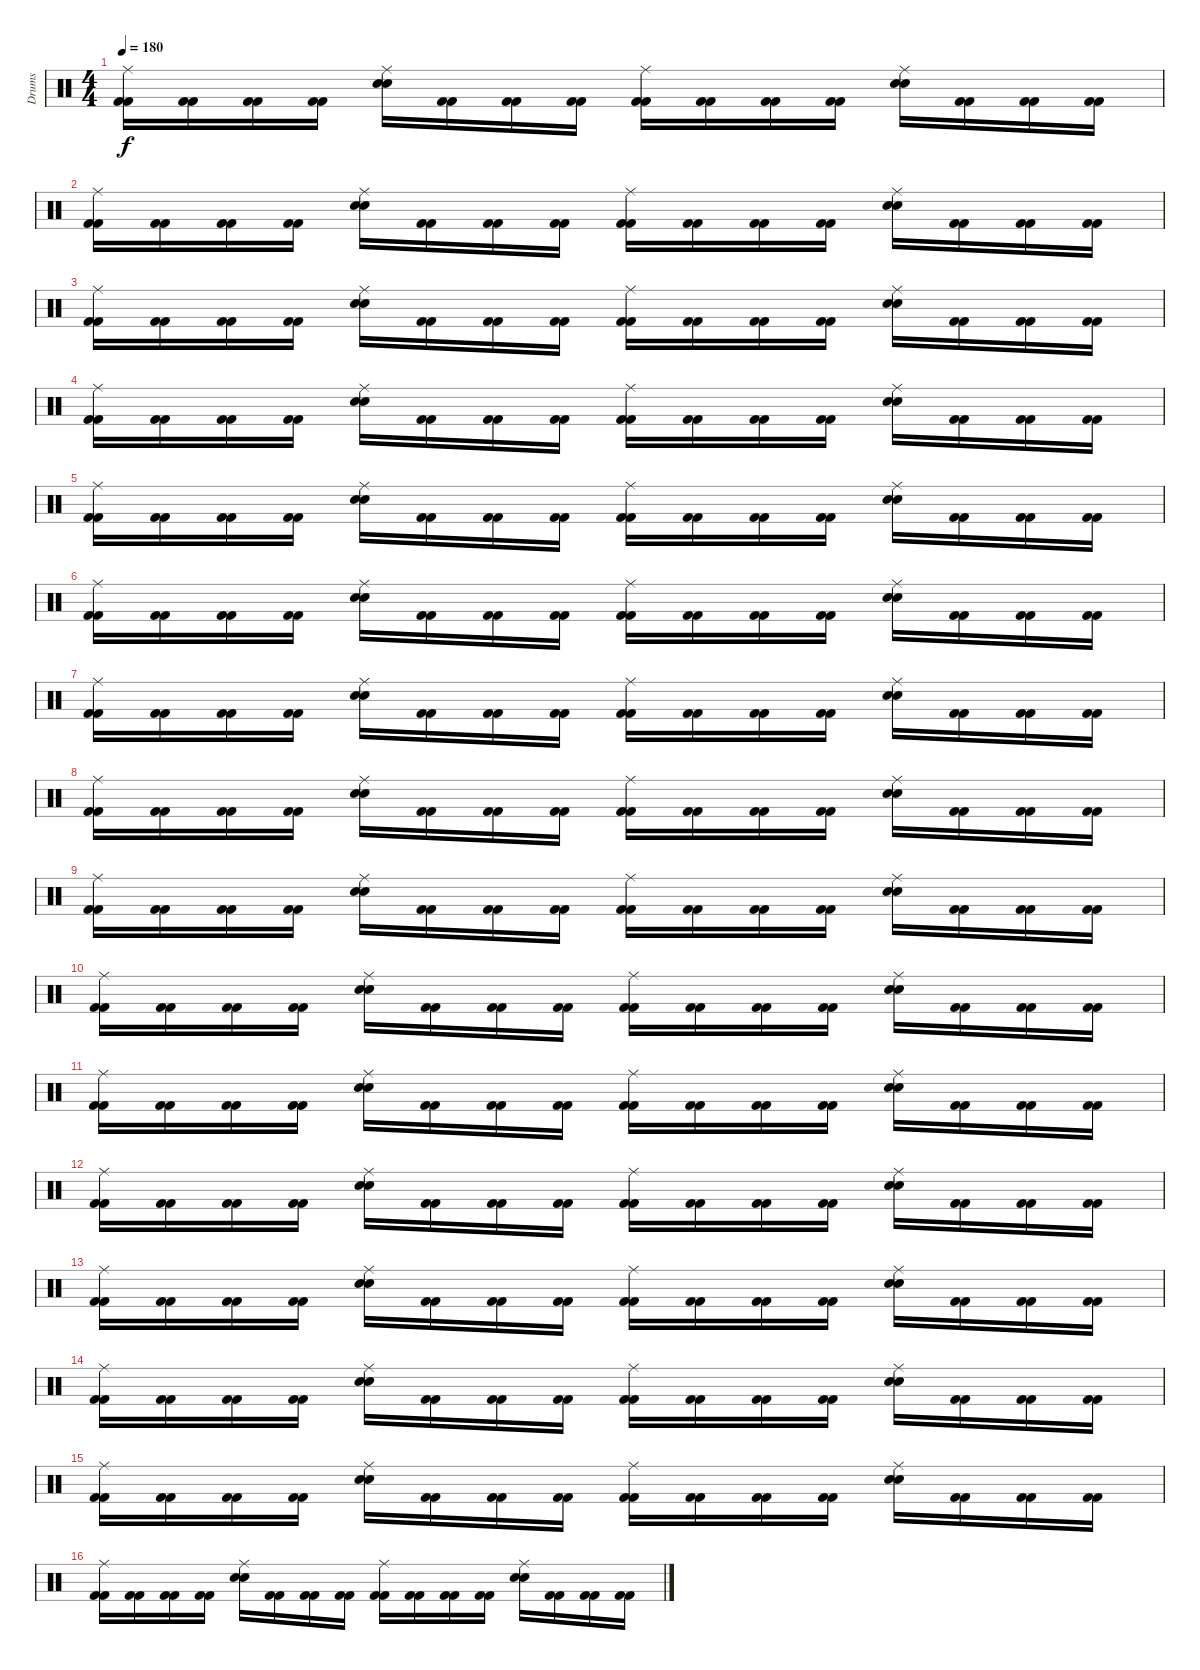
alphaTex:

\track ("Drums" "Drums") {instrument percussion}
\staff {score}
\articulation defaults
\ts (4 4)
\tempo 180
\clef neutral
\ks c
("Ride (middle)" "Kick (hit) 2" "Kick (hit) 2").16{dy f} ("Kick (hit) 2" "Kick (hit) 2").16 ("Kick (hit) 2" "Kick (hit) 2").16 ("Kick (hit) 2" "Kick (hit) 2").16 ("Ride (middle)" "Snare (hit) 2" "Snare (hit) 2").16 ("Kick (hit) 2" "Kick (hit) 2").16 ("Kick (hit) 2" "Kick (hit) 2").16 ("Kick (hit) 2" "Kick (hit) 2").16 ("Ride (middle)" "Kick (hit) 2" "Kick (hit) 2").16 ("Kick (hit) 2" "Kick (hit) 2").16 ("Kick (hit) 2" "Kick (hit) 2").16 ("Kick (hit) 2" "Kick (hit) 2").16 ("Ride (middle)" "Snare (hit) 2" "Snare (hit) 2").16 ("Kick (hit) 2" "Kick (hit) 2").16 ("Kick (hit) 2" "Kick (hit) 2").16 ("Kick (hit) 2" "Kick (hit) 2").16 |
("Ride (middle)" "Kick (hit) 2" "Kick (hit) 2").16 ("Kick (hit) 2" "Kick (hit) 2").16 ("Kick (hit) 2" "Kick (hit) 2").16 ("Kick (hit) 2" "Kick (hit) 2").16 ("Ride (middle)" "Snare (hit) 2" "Snare (hit) 2").16 ("Kick (hit) 2" "Kick (hit) 2").16 ("Kick (hit) 2" "Kick (hit) 2").16 ("Kick (hit) 2" "Kick (hit) 2").16 ("Ride (middle)" "Kick (hit) 2" "Kick (hit) 2").16 ("Kick (hit) 2" "Kick (hit) 2").16 ("Kick (hit) 2" "Kick (hit) 2").16 ("Kick (hit) 2" "Kick (hit) 2").16 ("Ride (middle)" "Snare (hit) 2" "Snare (hit) 2").16 ("Kick (hit) 2" "Kick (hit) 2").16 ("Kick (hit) 2" "Kick (hit) 2").16 ("Kick (hit) 2" "Kick (hit) 2").16 |
("Ride (middle)" "Kick (hit) 2" "Kick (hit) 2").16 ("Kick (hit) 2" "Kick (hit) 2").16 ("Kick (hit) 2" "Kick (hit) 2").16 ("Kick (hit) 2" "Kick (hit) 2").16 ("Ride (middle)" "Snare (hit) 2" "Snare (hit) 2").16 ("Kick (hit) 2" "Kick (hit) 2").16 ("Kick (hit) 2" "Kick (hit) 2").16 ("Kick (hit) 2" "Kick (hit) 2").16 ("Ride (middle)" "Kick (hit) 2" "Kick (hit) 2").16 ("Kick (hit) 2" "Kick (hit) 2").16 ("Kick (hit) 2" "Kick (hit) 2").16 ("Kick (hit) 2" "Kick (hit) 2").16 ("Ride (middle)" "Snare (hit) 2" "Snare (hit) 2").16 ("Kick (hit) 2" "Kick (hit) 2").16 ("Kick (hit) 2" "Kick (hit) 2").16 ("Kick (hit) 2" "Kick (hit) 2").16 |
("Ride (middle)" "Kick (hit) 2" "Kick (hit) 2").16 ("Kick (hit) 2" "Kick (hit) 2").16 ("Kick (hit) 2" "Kick (hit) 2").16 ("Kick (hit) 2" "Kick (hit) 2").16 ("Ride (middle)" "Snare (hit) 2" "Snare (hit) 2").16 ("Kick (hit) 2" "Kick (hit) 2").16 ("Kick (hit) 2" "Kick (hit) 2").16 ("Kick (hit) 2" "Kick (hit) 2").16 ("Ride (middle)" "Kick (hit) 2" "Kick (hit) 2").16 ("Kick (hit) 2" "Kick (hit) 2").16 ("Kick (hit) 2" "Kick (hit) 2").16 ("Kick (hit) 2" "Kick (hit) 2").16 ("Ride (middle)" "Snare (hit) 2" "Snare (hit) 2").16 ("Kick (hit) 2" "Kick (hit) 2").16 ("Kick (hit) 2" "Kick (hit) 2").16 ("Kick (hit) 2" "Kick (hit) 2").16 |
("Ride (middle)" "Kick (hit) 2" "Kick (hit) 2").16 ("Kick (hit) 2" "Kick (hit) 2").16 ("Kick (hit) 2" "Kick (hit) 2").16 ("Kick (hit) 2" "Kick (hit) 2").16 ("Ride (middle)" "Snare (hit) 2" "Snare (hit) 2").16 ("Kick (hit) 2" "Kick (hit) 2").16 ("Kick (hit) 2" "Kick (hit) 2").16 ("Kick (hit) 2" "Kick (hit) 2").16 ("Ride (middle)" "Kick (hit) 2" "Kick (hit) 2").16 ("Kick (hit) 2" "Kick (hit) 2").16 ("Kick (hit) 2" "Kick (hit) 2").16 ("Kick (hit) 2" "Kick (hit) 2").16 ("Ride (middle)" "Snare (hit) 2" "Snare (hit) 2").16 ("Kick (hit) 2" "Kick (hit) 2").16 ("Kick (hit) 2" "Kick (hit) 2").16 ("Kick (hit) 2" "Kick (hit) 2").16 |
("Ride (middle)" "Kick (hit) 2" "Kick (hit) 2").16 ("Kick (hit) 2" "Kick (hit) 2").16 ("Kick (hit) 2" "Kick (hit) 2").16 ("Kick (hit) 2" "Kick (hit) 2").16 ("Ride (middle)" "Snare (hit) 2" "Snare (hit) 2").16 ("Kick (hit) 2" "Kick (hit) 2").16 ("Kick (hit) 2" "Kick (hit) 2").16 ("Kick (hit) 2" "Kick (hit) 2").16 ("Ride (middle)" "Kick (hit) 2" "Kick (hit) 2").16 ("Kick (hit) 2" "Kick (hit) 2").16 ("Kick (hit) 2" "Kick (hit) 2").16 ("Kick (hit) 2" "Kick (hit) 2").16 ("Ride (middle)" "Snare (hit) 2" "Snare (hit) 2").16 ("Kick (hit) 2" "Kick (hit) 2").16 ("Kick (hit) 2" "Kick (hit) 2").16 ("Kick (hit) 2" "Kick (hit) 2").16 |
("Ride (middle)" "Kick (hit) 2" "Kick (hit) 2").16 ("Kick (hit) 2" "Kick (hit) 2").16 ("Kick (hit) 2" "Kick (hit) 2").16 ("Kick (hit) 2" "Kick (hit) 2").16 ("Ride (middle)" "Snare (hit) 2" "Snare (hit) 2").16 ("Kick (hit) 2" "Kick (hit) 2").16 ("Kick (hit) 2" "Kick (hit) 2").16 ("Kick (hit) 2" "Kick (hit) 2").16 ("Ride (middle)" "Kick (hit) 2" "Kick (hit) 2").16 ("Kick (hit) 2" "Kick (hit) 2").16 ("Kick (hit) 2" "Kick (hit) 2").16 ("Kick (hit) 2" "Kick (hit) 2").16 ("Ride (middle)" "Snare (hit) 2" "Snare (hit) 2").16 ("Kick (hit) 2" "Kick (hit) 2").16 ("Kick (hit) 2" "Kick (hit) 2").16 ("Kick (hit) 2" "Kick (hit) 2").16 |
("Ride (middle)" "Kick (hit) 2" "Kick (hit) 2").16 ("Kick (hit) 2" "Kick (hit) 2").16 ("Kick (hit) 2" "Kick (hit) 2").16 ("Kick (hit) 2" "Kick (hit) 2").16 ("Ride (middle)" "Snare (hit) 2" "Snare (hit) 2").16 ("Kick (hit) 2" "Kick (hit) 2").16 ("Kick (hit) 2" "Kick (hit) 2").16 ("Kick (hit) 2" "Kick (hit) 2").16 ("Ride (middle)" "Kick (hit) 2" "Kick (hit) 2").16 ("Kick (hit) 2" "Kick (hit) 2").16 ("Kick (hit) 2" "Kick (hit) 2").16 ("Kick (hit) 2" "Kick (hit) 2").16 ("Ride (middle)" "Snare (hit) 2" "Snare (hit) 2").16 ("Kick (hit) 2" "Kick (hit) 2").16 ("Kick (hit) 2" "Kick (hit) 2").16 ("Kick (hit) 2" "Kick (hit) 2").16 |
("Ride (middle)" "Kick (hit) 2" "Kick (hit) 2").16 ("Kick (hit) 2" "Kick (hit) 2").16 ("Kick (hit) 2" "Kick (hit) 2").16 ("Kick (hit) 2" "Kick (hit) 2").16 ("Ride (middle)" "Snare (hit) 2" "Snare (hit) 2").16 ("Kick (hit) 2" "Kick (hit) 2").16 ("Kick (hit) 2" "Kick (hit) 2").16 ("Kick (hit) 2" "Kick (hit) 2").16 ("Ride (middle)" "Kick (hit) 2" "Kick (hit) 2").16 ("Kick (hit) 2" "Kick (hit) 2").16 ("Kick (hit) 2" "Kick (hit) 2").16 ("Kick (hit) 2" "Kick (hit) 2").16 ("Ride (middle)" "Snare (hit) 2" "Snare (hit) 2").16 ("Kick (hit) 2" "Kick (hit) 2").16 ("Kick (hit) 2" "Kick (hit) 2").16 ("Kick (hit) 2" "Kick (hit) 2").16 |
("Ride (middle)" "Kick (hit) 2" "Kick (hit) 2").16 ("Kick (hit) 2" "Kick (hit) 2").16 ("Kick (hit) 2" "Kick (hit) 2").16 ("Kick (hit) 2" "Kick (hit) 2").16 ("Ride (middle)" "Snare (hit) 2" "Snare (hit) 2").16 ("Kick (hit) 2" "Kick (hit) 2").16 ("Kick (hit) 2" "Kick (hit) 2").16 ("Kick (hit) 2" "Kick (hit) 2").16 ("Ride (middle)" "Kick (hit) 2" "Kick (hit) 2").16 ("Kick (hit) 2" "Kick (hit) 2").16 ("Kick (hit) 2" "Kick (hit) 2").16 ("Kick (hit) 2" "Kick (hit) 2").16 ("Ride (middle)" "Snare (hit) 2" "Snare (hit) 2").16 ("Kick (hit) 2" "Kick (hit) 2").16 ("Kick (hit) 2" "Kick (hit) 2").16 ("Kick (hit) 2" "Kick (hit) 2").16 |
("Ride (middle)" "Kick (hit) 2" "Kick (hit) 2").16 ("Kick (hit) 2" "Kick (hit) 2").16 ("Kick (hit) 2" "Kick (hit) 2").16 ("Kick (hit) 2" "Kick (hit) 2").16 ("Ride (middle)" "Snare (hit) 2" "Snare (hit) 2").16 ("Kick (hit) 2" "Kick (hit) 2").16 ("Kick (hit) 2" "Kick (hit) 2").16 ("Kick (hit) 2" "Kick (hit) 2").16 ("Ride (middle)" "Kick (hit) 2" "Kick (hit) 2").16 ("Kick (hit) 2" "Kick (hit) 2").16 ("Kick (hit) 2" "Kick (hit) 2").16 ("Kick (hit) 2" "Kick (hit) 2").16 ("Ride (middle)" "Snare (hit) 2" "Snare (hit) 2").16 ("Kick (hit) 2" "Kick (hit) 2").16 ("Kick (hit) 2" "Kick (hit) 2").16 ("Kick (hit) 2" "Kick (hit) 2").16 |
("Ride (middle)" "Kick (hit) 2" "Kick (hit) 2").16 ("Kick (hit) 2" "Kick (hit) 2").16 ("Kick (hit) 2" "Kick (hit) 2").16 ("Kick (hit) 2" "Kick (hit) 2").16 ("Ride (middle)" "Snare (hit) 2" "Snare (hit) 2").16 ("Kick (hit) 2" "Kick (hit) 2").16 ("Kick (hit) 2" "Kick (hit) 2").16 ("Kick (hit) 2" "Kick (hit) 2").16 ("Ride (middle)" "Kick (hit) 2" "Kick (hit) 2").16 ("Kick (hit) 2" "Kick (hit) 2").16 ("Kick (hit) 2" "Kick (hit) 2").16 ("Kick (hit) 2" "Kick (hit) 2").16 ("Ride (middle)" "Snare (hit) 2" "Snare (hit) 2").16 ("Kick (hit) 2" "Kick (hit) 2").16 ("Kick (hit) 2" "Kick (hit) 2").16 ("Kick (hit) 2" "Kick (hit) 2").16 |
("Ride (middle)" "Kick (hit) 2" "Kick (hit) 2").16 ("Kick (hit) 2" "Kick (hit) 2").16 ("Kick (hit) 2" "Kick (hit) 2").16 ("Kick (hit) 2" "Kick (hit) 2").16 ("Ride (middle)" "Snare (hit) 2" "Snare (hit) 2").16 ("Kick (hit) 2" "Kick (hit) 2").16 ("Kick (hit) 2" "Kick (hit) 2").16 ("Kick (hit) 2" "Kick (hit) 2").16 ("Ride (middle)" "Kick (hit) 2" "Kick (hit) 2").16 ("Kick (hit) 2" "Kick (hit) 2").16 ("Kick (hit) 2" "Kick (hit) 2").16 ("Kick (hit) 2" "Kick (hit) 2").16 ("Ride (middle)" "Snare (hit) 2" "Snare (hit) 2").16 ("Kick (hit) 2" "Kick (hit) 2").16 ("Kick (hit) 2" "Kick (hit) 2").16 ("Kick (hit) 2" "Kick (hit) 2").16 |
("Ride (middle)" "Kick (hit) 2" "Kick (hit) 2").16 ("Kick (hit) 2" "Kick (hit) 2").16 ("Kick (hit) 2" "Kick (hit) 2").16 ("Kick (hit) 2" "Kick (hit) 2").16 ("Ride (middle)" "Snare (hit) 2" "Snare (hit) 2").16 ("Kick (hit) 2" "Kick (hit) 2").16 ("Kick (hit) 2" "Kick (hit) 2").16 ("Kick (hit) 2" "Kick (hit) 2").16 ("Ride (middle)" "Kick (hit) 2" "Kick (hit) 2").16 ("Kick (hit) 2" "Kick (hit) 2").16 ("Kick (hit) 2" "Kick (hit) 2").16 ("Kick (hit) 2" "Kick (hit) 2").16 ("Ride (middle)" "Snare (hit) 2" "Snare (hit) 2").16 ("Kick (hit) 2" "Kick (hit) 2").16 ("Kick (hit) 2" "Kick (hit) 2").16 ("Kick (hit) 2" "Kick (hit) 2").16 |
("Ride (middle)" "Kick (hit) 2" "Kick (hit) 2").16 ("Kick (hit) 2" "Kick (hit) 2").16 ("Kick (hit) 2" "Kick (hit) 2").16 ("Kick (hit) 2" "Kick (hit) 2").16 ("Ride (middle)" "Snare (hit) 2" "Snare (hit) 2").16 ("Kick (hit) 2" "Kick (hit) 2").16 ("Kick (hit) 2" "Kick (hit) 2").16 ("Kick (hit) 2" "Kick (hit) 2").16 ("Ride (middle)" "Kick (hit) 2" "Kick (hit) 2").16 ("Kick (hit) 2" "Kick (hit) 2").16 ("Kick (hit) 2" "Kick (hit) 2").16 ("Kick (hit) 2" "Kick (hit) 2").16 ("Ride (middle)" "Snare (hit) 2" "Snare (hit) 2").16 ("Kick (hit) 2" "Kick (hit) 2").16 ("Kick (hit) 2" "Kick (hit) 2").16 ("Kick (hit) 2" "Kick (hit) 2").16 |
("Ride (middle)" "Kick (hit) 2" "Kick (hit) 2").16 ("Kick (hit) 2" "Kick (hit) 2").16 ("Kick (hit) 2" "Kick (hit) 2").16 ("Kick (hit) 2" "Kick (hit) 2").16 ("Ride (middle)" "Snare (hit) 2" "Snare (hit) 2").16 ("Kick (hit) 2" "Kick (hit) 2").16 ("Kick (hit) 2" "Kick (hit) 2").16 ("Kick (hit) 2" "Kick (hit) 2").16 ("Ride (middle)" "Kick (hit) 2" "Kick (hit) 2").16 ("Kick (hit) 2" "Kick (hit) 2").16 ("Kick (hit) 2" "Kick (hit) 2").16 ("Kick (hit) 2" "Kick (hit) 2").16 ("Ride (middle)" "Snare (hit) 2" "Snare (hit) 2").16 ("Kick (hit) 2" "Kick (hit) 2").16 ("Kick (hit) 2" "Kick (hit) 2").16 ("Kick (hit) 2" "Kick (hit) 2").16
